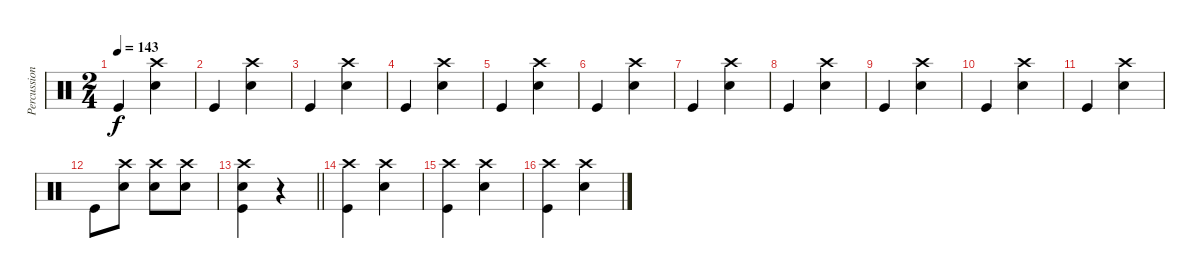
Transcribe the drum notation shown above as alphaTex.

\track ("Percussion" "Percussion") {instrument percussion}
\staff {score}
\articulation defaults
\ts (2 4)
\tempo 143
\clef neutral
\ks c "Kick (hit)".4{dy f}
("Snare (hit) 2"{x} "Crash high (hit)"{x}).4 |
"Kick (hit)".4 ("Snare (hit) 2"{x} "Crash high (hit)"{x}).4 |
"Kick (hit)".4 ("Snare (hit) 2"{x} "Crash high (hit)"{x}).4 |
"Kick (hit)".4 ("Snare (hit) 2"{x} "Crash high (hit)"{x}).4 |
"Kick (hit)".4 ("Snare (hit) 2"{x} "Crash high (hit)"{x}).4 |
"Kick (hit)".4 ("Snare (hit) 2" "Crash high (hit)").4 |
"Kick (hit)".4 ("Snare (hit) 2" "Crash high (hit)").4 |
"Kick (hit)".4 ("Snare (hit) 2" "Crash high (hit)").4 |
"Kick (hit)".4 ("Snare (hit) 2" "Crash high (hit)").4 |
"Kick (hit)".4 ("Snare (hit) 2" "Crash high (hit)").4 |
"Kick (hit)".4 ("Snare (hit) 2" "Crash high (hit)").4 |
"Kick (hit)".8 ("Snare (hit) 2" "Crash high (hit)").8 ("Snare (hit) 2" "Crash high (hit)").8 ("Snare (hit) 2" "Crash high (hit)").8 |
\barLineRight lightlight
("Snare (hit) 2" "Crash high (hit)" "Kick (hit)").4 r.4 |
("Kick (hit)" "Crash high (hit)").4 ("Snare (hit) 2"{x} "Crash high (hit)").4 |
("Kick (hit)" "Crash high (hit)").4 ("Snare (hit) 2"{x} "Crash high (hit)").4 |
("Kick (hit)" "Crash high (hit)").4 ("Snare (hit) 2"{x} "Crash high (hit)").4
